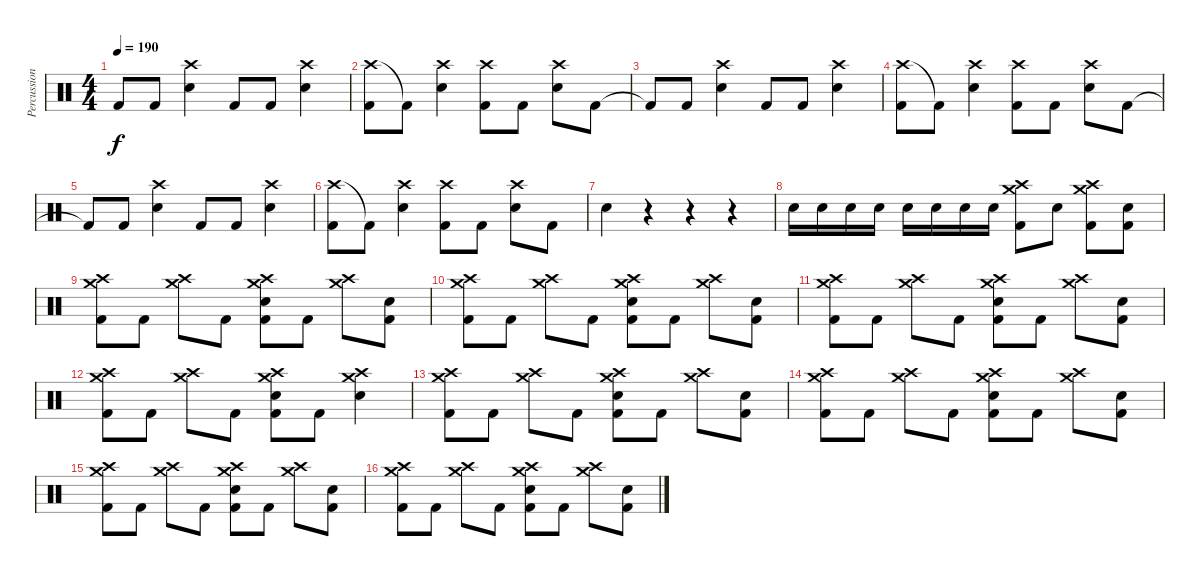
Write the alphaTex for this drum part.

\track ("Percussion" "Percussion") {instrument percussion}
\staff {score}
\articulation defaults
\ts (4 4)
\tempo 190
\clef neutral
\ks c "Kick (hit) 2"{t}.8{dy f} "Kick (hit) 2".8
("Crash high (hit)" "Electric Snare (hit)").4 "Kick (hit) 2".8 "Kick (hit) 2".8 ("Crash high (hit)" "Electric Snare (hit)").4 |
("Crash high (hit)" "Kick (hit) 2").8 "Kick (hit) 2"{t}.8 ("Crash high (hit)" "Electric Snare (hit)").4 ("Crash high (hit)" "Kick (hit) 2").8 "Kick (hit) 2".8 ("Crash high (hit)" "Electric Snare (hit)").8 "Kick (hit) 2".8 |
"Kick (hit) 2"{t}.8 "Kick (hit) 2".8 ("Crash high (hit)" "Electric Snare (hit)").4 "Kick (hit) 2".8 "Kick (hit) 2".8 ("Crash high (hit)" "Electric Snare (hit)").4 |
("Crash high (hit)" "Kick (hit) 2").8 "Kick (hit) 2"{t}.8 ("Crash high (hit)" "Electric Snare (hit)").4 ("Crash high (hit)" "Kick (hit) 2").8 "Kick (hit) 2".8 ("Crash high (hit)" "Electric Snare (hit)").8 "Kick (hit) 2".8 |
"Kick (hit) 2"{t}.8 "Kick (hit) 2".8 ("Crash high (hit)" "Electric Snare (hit)").4 "Kick (hit) 2".8 "Kick (hit) 2".8 ("Crash high (hit)" "Electric Snare (hit)").4 |
("Crash high (hit)" "Kick (hit) 2").8 "Kick (hit) 2"{t}.8 ("Crash high (hit)" "Electric Snare (hit)").4 ("Crash high (hit)" "Kick (hit) 2").8 "Kick (hit) 2".8 ("Crash high (hit)" "Electric Snare (hit)").8 "Kick (hit) 2".8 |
"Electric Snare (hit)".4 r.4 r.4 r.4 |
"Electric Snare (hit)".16 "Electric Snare (hit)".16 "Electric Snare (hit)".16 "Electric Snare (hit)".16 "Electric Snare (hit)".16 "Electric Snare (hit)".16 "Electric Snare (hit)".16 "Electric Snare (hit)".16 ("Crash medium (hit)" "Crash high (hit)" "Kick (hit) 2").8 "Electric Snare (hit)".8 ("Crash medium (hit)" "Crash high (hit)" "Kick (hit) 2").8 ("Electric Snare (hit)" "Kick (hit) 2").8 |
("Crash medium (hit)" "Crash high (hit)" "Kick (hit) 2").8 "Kick (hit) 2".8 ("Crash medium (hit)" "Crash high (hit)").8 "Kick (hit) 2".8 ("Crash medium (hit)" "Crash high (hit)" "Electric Snare (hit)" "Kick (hit) 2").8 "Kick (hit) 2".8 ("Crash medium (hit)" "Crash high (hit)").8 ("Electric Snare (hit)" "Kick (hit) 2").8 |
("Crash medium (hit)" "Crash high (hit)" "Kick (hit) 2").8 "Kick (hit) 2".8 ("Crash medium (hit)" "Crash high (hit)").8 "Kick (hit) 2".8 ("Crash medium (hit)" "Crash high (hit)" "Electric Snare (hit)" "Kick (hit) 2").8 "Kick (hit) 2".8 ("Crash medium (hit)" "Crash high (hit)").8 ("Electric Snare (hit)" "Kick (hit) 2").8 |
("Crash medium (hit)" "Crash high (hit)" "Kick (hit) 2").8 "Kick (hit) 2".8 ("Crash medium (hit)" "Crash high (hit)").8 "Kick (hit) 2".8 ("Crash medium (hit)" "Crash high (hit)" "Electric Snare (hit)" "Kick (hit) 2").8 "Kick (hit) 2".8 ("Crash medium (hit)" "Crash high (hit)").8 ("Electric Snare (hit)" "Kick (hit) 2").8 |
("Crash medium (hit)" "Crash high (hit)" "Kick (hit) 2").8 "Kick (hit) 2".8 ("Crash medium (hit)" "Crash high (hit)").8 "Kick (hit) 2".8 ("Crash medium (hit)" "Crash high (hit)" "Electric Snare (hit)" "Kick (hit) 2").8 "Kick (hit) 2".8 ("Crash medium (hit)" "Crash high (hit)" "Electric Snare (hit)").4 |
("Crash medium (hit)" "Crash high (hit)" "Kick (hit) 2").8 "Kick (hit) 2".8 ("Crash medium (hit)" "Crash high (hit)").8 "Kick (hit) 2".8 ("Crash medium (hit)" "Crash high (hit)" "Electric Snare (hit)" "Kick (hit) 2").8 "Kick (hit) 2".8 ("Crash medium (hit)" "Crash high (hit)").8 ("Electric Snare (hit)" "Kick (hit) 2").8 |
("Crash medium (hit)" "Crash high (hit)" "Kick (hit) 2").8 "Kick (hit) 2".8 ("Crash medium (hit)" "Crash high (hit)").8 "Kick (hit) 2".8 ("Crash medium (hit)" "Crash high (hit)" "Electric Snare (hit)" "Kick (hit) 2").8 "Kick (hit) 2".8 ("Crash medium (hit)" "Crash high (hit)").8 ("Electric Snare (hit)" "Kick (hit) 2").8 |
("Crash medium (hit)" "Crash high (hit)" "Kick (hit) 2").8 "Kick (hit) 2".8 ("Crash medium (hit)" "Crash high (hit)").8 "Kick (hit) 2".8 ("Crash medium (hit)" "Crash high (hit)" "Electric Snare (hit)" "Kick (hit) 2").8 "Kick (hit) 2".8 ("Crash medium (hit)" "Crash high (hit)").8 ("Electric Snare (hit)" "Kick (hit) 2").8 |
("Crash medium (hit)" "Crash high (hit)" "Kick (hit) 2").8 "Kick (hit) 2".8 ("Crash medium (hit)" "Crash high (hit)").8 "Kick (hit) 2".8 ("Crash medium (hit)" "Crash high (hit)" "Electric Snare (hit)" "Kick (hit) 2").8 "Kick (hit) 2".8 ("Crash medium (hit)" "Crash high (hit)").8 ("Electric Snare (hit)" "Kick (hit) 2").8
